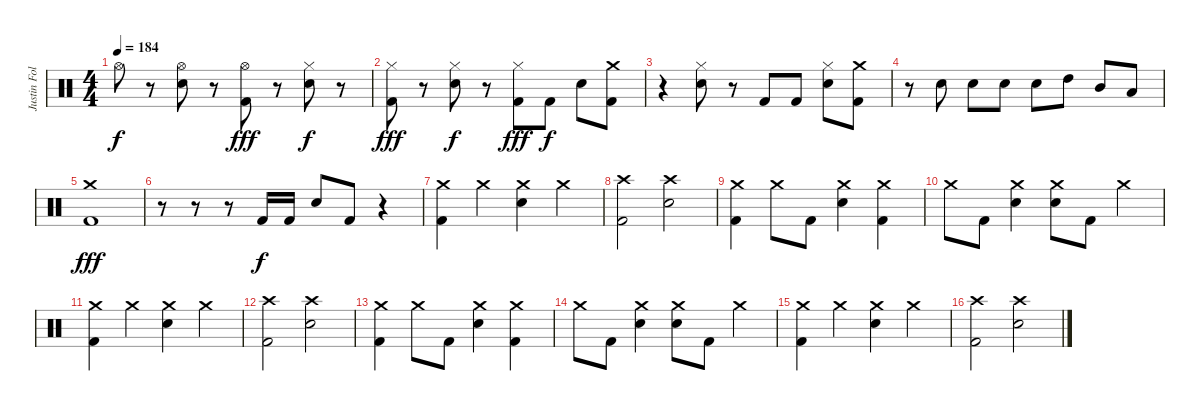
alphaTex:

\track ("Justin Foley" "Justin Fol") {instrument percussion}
\staff {score}
\articulation defaults
\ts (4 4)
\tempo 184
\clef neutral
\ks c "Hi-Hat (open)".8{dy f}
r.8 ("Hi-Hat (open)" "Electric Snare (hit)").8 r.8 ("Hi-Hat (open)" "Kick (hit) 2").8{dy fff} r.8 ("Hi-Hat (closed)" "Electric Snare (hit)").8{dy f} r.8 |
("Hi-Hat (closed)" "Kick (hit) 2").8{dy fff} r.8 ("Hi-Hat (closed)" "Electric Snare (hit)").8{dy f} r.8 ("Hi-Hat (closed)" "Kick (hit) 2").8{dy fff} "Kick (hit) 2".8{dy f} "Electric Snare (hit)".8 ("Crash medium (hit)" "Kick (hit) 2").8 |
r.4 ("Hi-Hat (closed)" "Electric Snare (hit)").8 r.8 "Kick (hit) 2".8 "Kick (hit) 2".8 ("Hi-Hat (closed)" "Electric Snare (hit)").8 ("Crash medium (hit)" "Kick (hit) 2").8 |
r.8 "Electric Snare (hit)".8 "Electric Snare (hit)".8 "Electric Snare (hit)".8 "Electric Snare (hit)".8 "High Tom (hit)".8 "Mid Tom (hit)".8 "Low Tom (hit)".8 |
("Crash medium (hit)" "Kick (hit) 2").1{dy fff} |
r.8 r.8 r.8 "Kick (hit) 2".16{dy f} "Kick (hit) 2".16 "Electric Snare (hit)".8 "Kick (hit) 2".8 r.4 |
("Crash medium (hit)" "Kick (hit) 2").4 "Crash medium (hit)".4 ("Crash medium (hit)" "Electric Snare (hit)").4 "Crash medium (hit)".4 |
("Crash high (hit)" "Kick (hit) 2").2 ("Crash high (hit)" "Electric Snare (hit)").2 |
("Crash medium (hit)" "Kick (hit) 2").4 "Crash medium (hit)".8 "Kick (hit) 2".8 ("Crash medium (hit)" "Electric Snare (hit)").4 ("Crash medium (hit)" "Kick (hit) 2").4 |
"Crash medium (hit)".8 "Kick (hit) 2".8 ("Crash medium (hit)" "Electric Snare (hit)").4 ("Crash medium (hit)" "Electric Snare (hit)").8 "Kick (hit) 2".8 "Crash medium (hit)".4 |
("Crash medium (hit)" "Kick (hit) 2").4 "Crash medium (hit)".4 ("Crash medium (hit)" "Electric Snare (hit)").4 "Crash medium (hit)".4 |
("Crash high (hit)" "Kick (hit) 2").2 ("Crash high (hit)" "Electric Snare (hit)").2 |
("Crash medium (hit)" "Kick (hit) 2").4 "Crash medium (hit)".8 "Kick (hit) 2".8 ("Crash medium (hit)" "Electric Snare (hit)").4 ("Crash medium (hit)" "Kick (hit) 2").4 |
"Crash medium (hit)".8 "Kick (hit) 2".8 ("Crash medium (hit)" "Electric Snare (hit)").4 ("Crash medium (hit)" "Electric Snare (hit)").8 "Kick (hit) 2".8 "Crash medium (hit)".4 |
("Crash medium (hit)" "Kick (hit) 2").4 "Crash medium (hit)".4 ("Crash medium (hit)" "Electric Snare (hit)").4 "Crash medium (hit)".4 |
("Crash high (hit)" "Kick (hit) 2").2 ("Crash high (hit)" "Electric Snare (hit)").2
